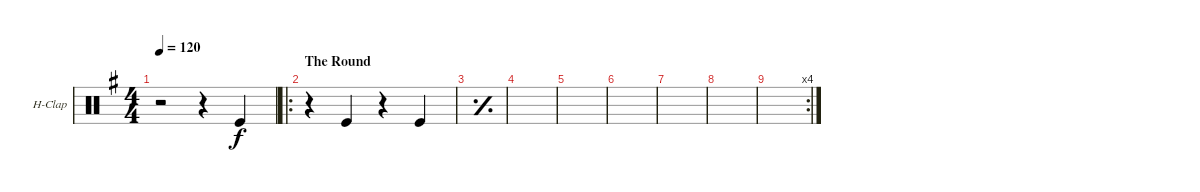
\defaultSystemsLayout 4
\bracketExtendMode groupsimilarinstruments
\firstSystemTrackNameOrientation horizontal
\otherSystemsTrackNameOrientation horizontal
\track ("Hand Clap" "H-Clap") {instrument percussion}
\staff {score}
\articulation defaults
\ts (4 4)
\tempo 120
\clef neutral
\scale
0.477178
\ks g
r.2{dy f} r.4 "Kick (hit)".4 |
\ro
\section ("" "The Round")
\scale
0.392347 r.4 "Kick (hit)".4 r.4 "Kick (hit)".4 |
\simile simple
\scale
0.201967 |
\scale
0.177249 |
\scale
0.18254 |
\scale
0.195767 |
\scale
0.236173 |
\scale
0.220251 |
\rc 4
\scale
0.247969
